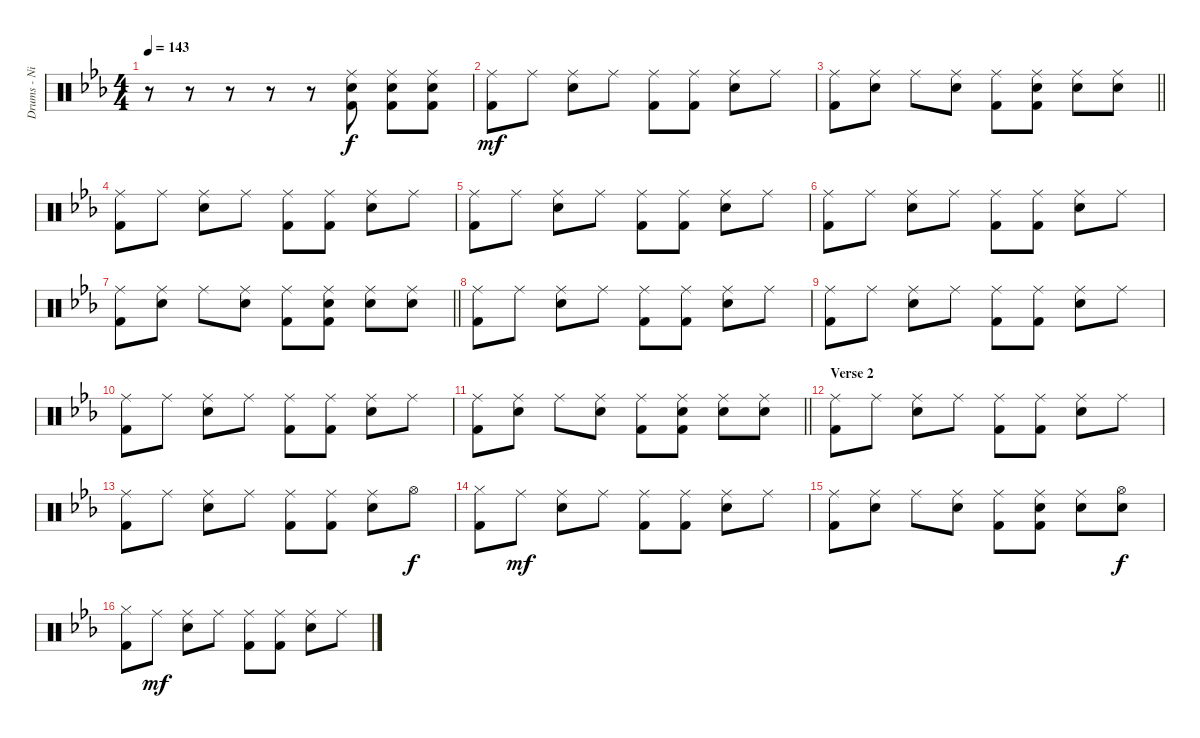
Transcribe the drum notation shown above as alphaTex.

\track ("Drums - Nigel Olsen" "Drums - Ni") {instrument percussion}
\staff {score}
\articulation defaults
\ts (4 4)
\tempo 143
\clef neutral
\ks cminor
r.8{dy mf} r.8 r.8 r.8 r.8 ("Ride (middle)" "Snare (hit) 2" "Kick (hit) 2").8{dy f} ("Ride (middle)" "Snare (hit) 2" "Kick (hit) 2").8 ("Ride (middle)" "Snare (hit) 2" "Kick (hit) 2").8 |
("Ride (middle)" "Kick (hit) 2").8{dy mf} "Ride (middle)".8 ("Ride (middle)" "Snare (hit) 2").8 "Ride (middle)".8 ("Ride (middle)" "Kick (hit) 2").8 ("Ride (middle)" "Kick (hit) 2").8 ("Ride (middle)" "Snare (hit) 2").8 "Ride (middle)".8 |
\barLineRight lightlight
("Ride (middle)" "Kick (hit) 2").8 ("Ride (middle)" "Snare (hit) 2").8 "Ride (middle)".8 ("Ride (middle)" "Snare (hit) 2").8 ("Ride (middle)" "Kick (hit) 2").8 ("Ride (middle)" "Snare (hit) 2" "Kick (hit) 2").8 ("Ride (middle)" "Snare (hit) 2").8 ("Ride (middle)" "Snare (hit) 2").8 |
("Ride (middle)" "Kick (hit) 2").8 "Ride (middle)".8 ("Ride (middle)" "Snare (hit) 2").8 "Ride (middle)".8 ("Ride (middle)" "Kick (hit) 2").8 ("Ride (middle)" "Kick (hit) 2").8 ("Ride (middle)" "Snare (hit) 2").8 "Ride (middle)".8 |
("Ride (middle)" "Kick (hit) 2").8 "Ride (middle)".8 ("Ride (middle)" "Snare (hit) 2").8 "Ride (middle)".8 ("Ride (middle)" "Kick (hit) 2").8 ("Ride (middle)" "Kick (hit) 2").8 ("Ride (middle)" "Snare (hit) 2").8 "Ride (middle)".8 |
("Ride (middle)" "Kick (hit) 2").8 "Ride (middle)".8 ("Ride (middle)" "Snare (hit) 2").8 "Ride (middle)".8 ("Ride (middle)" "Kick (hit) 2").8 ("Ride (middle)" "Kick (hit) 2").8 ("Ride (middle)" "Snare (hit) 2").8 "Ride (middle)".8 |
\barLineRight lightlight
("Ride (middle)" "Kick (hit) 2").8 ("Ride (middle)" "Snare (hit) 2").8 "Ride (middle)".8 ("Ride (middle)" "Snare (hit) 2").8 ("Ride (middle)" "Kick (hit) 2").8 ("Ride (middle)" "Snare (hit) 2" "Kick (hit) 2").8 ("Ride (middle)" "Snare (hit) 2").8 ("Ride (middle)" "Snare (hit) 2").8 |
("Ride (middle)" "Kick (hit) 2").8 "Ride (middle)".8 ("Ride (middle)" "Snare (hit) 2").8 "Ride (middle)".8 ("Ride (middle)" "Kick (hit) 2").8 ("Ride (middle)" "Kick (hit) 2").8 ("Ride (middle)" "Snare (hit) 2").8 "Ride (middle)".8 |
("Ride (middle)" "Kick (hit) 2").8 "Ride (middle)".8 ("Ride (middle)" "Snare (hit) 2").8 "Ride (middle)".8 ("Ride (middle)" "Kick (hit) 2").8 ("Ride (middle)" "Kick (hit) 2").8 ("Ride (middle)" "Snare (hit) 2").8 "Ride (middle)".8 |
("Ride (middle)" "Kick (hit) 2").8 "Ride (middle)".8 ("Ride (middle)" "Snare (hit) 2").8 "Ride (middle)".8 ("Ride (middle)" "Kick (hit) 2").8 ("Ride (middle)" "Kick (hit) 2").8 ("Ride (middle)" "Snare (hit) 2").8 "Ride (middle)".8 |
\barLineRight lightlight
("Ride (middle)" "Kick (hit) 2").8 ("Ride (middle)" "Snare (hit) 2").8 "Ride (middle)".8 ("Ride (middle)" "Snare (hit) 2").8 ("Ride (middle)" "Kick (hit) 2").8 ("Ride (middle)" "Snare (hit) 2" "Kick (hit) 2").8 ("Ride (middle)" "Snare (hit) 2").8 ("Ride (middle)" "Snare (hit) 2").8 |
\section ("" "Verse 2")
("Ride (middle)" "Kick (hit) 2").8 "Ride (middle)".8 ("Ride (middle)" "Snare (hit) 2").8 "Ride (middle)".8 ("Ride (middle)" "Kick (hit) 2").8 ("Ride (middle)" "Kick (hit) 2").8 ("Ride (middle)" "Snare (hit) 2").8 "Ride (middle)".8 |
("Ride (middle)" "Kick (hit) 2").8 "Ride (middle)".8 ("Ride (middle)" "Snare (hit) 2").8 "Ride (middle)".8 ("Ride (middle)" "Kick (hit) 2").8 ("Ride (middle)" "Kick (hit) 2").8 ("Ride (middle)" "Snare (hit) 2").8 "Hi-Hat (open)".8{dy f} |
("Hi-Hat (closed)" "Kick (hit) 2").8 "Ride (middle)".8{dy mf} ("Ride (middle)" "Snare (hit) 2").8 "Ride (middle)".8 ("Ride (middle)" "Kick (hit) 2").8 ("Ride (middle)" "Kick (hit) 2").8 ("Ride (middle)" "Snare (hit) 2").8 "Ride (middle)".8 |
("Ride (middle)" "Kick (hit) 2").8 ("Ride (middle)" "Snare (hit) 2").8 "Ride (middle)".8 ("Ride (middle)" "Snare (hit) 2").8 ("Ride (middle)" "Kick (hit) 2").8 ("Ride (middle)" "Snare (hit) 2" "Kick (hit) 2").8 ("Ride (middle)" "Snare (hit) 2").8 ("Hi-Hat (open)" "Snare (hit) 2").8{dy f} |
("Hi-Hat (closed)" "Kick (hit) 2").8 "Ride (middle)".8{dy mf} ("Ride (middle)" "Snare (hit) 2").8 "Ride (middle)".8 ("Ride (middle)" "Kick (hit) 2").8 ("Ride (middle)" "Kick (hit) 2").8 ("Ride (middle)" "Snare (hit) 2").8 "Ride (middle)".8
